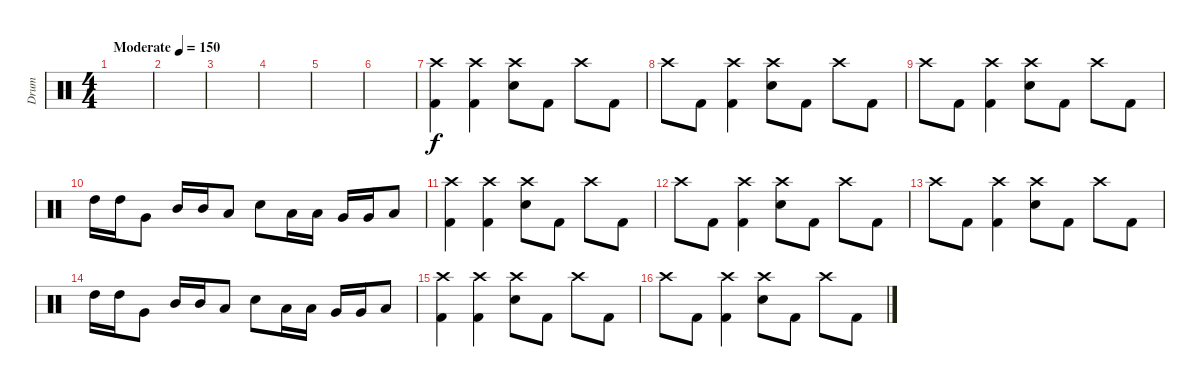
\track ("Drum" "Drum") {instrument percussion}
\staff {score}
\articulation defaults
\ts (4 4)
\tempo (150 "Moderate")
\clef neutral
\ks c
|
|
|
|
|
|
("Crash high (hit)" "Kick (hit) 2").4 ("Crash high (hit)" "Kick (hit) 2").4 ("Crash high (hit)" "Electric Snare (hit)").8 "Kick (hit) 2".8 "Crash high (hit)".8 "Kick (hit) 2".8 |
"Crash high (hit)".8 "Kick (hit) 2".8 ("Crash high (hit)" "Kick (hit) 2").4 ("Crash high (hit)" "Electric Snare (hit)").8 "Kick (hit) 2".8 "Crash high (hit)".8 "Kick (hit) 2".8 |
"Crash high (hit)".8 "Kick (hit) 2".8 ("Crash high (hit)" "Kick (hit) 2").4 ("Crash high (hit)" "Electric Snare (hit)").8 "Kick (hit) 2".8 "Crash high (hit)".8 "Kick (hit) 2".8 |
"High Tom (hit)".16 "High Tom (hit)".16 "Very Low Tom (hit)".8 "Mid Tom (hit)".16 "Mid Tom (hit)".16 "Low Tom (hit)".8 "Electric Snare (hit)".8 "Low Tom (hit)".16 "Low Tom (hit)".16 "Very Low Tom (hit)".16 "Very Low Tom (hit)".16 "Low Floor Tom (hit)".8 |
("Crash high (hit)" "Kick (hit) 2").4 ("Crash high (hit)" "Kick (hit) 2").4 ("Crash high (hit)" "Electric Snare (hit)").8 "Kick (hit) 2".8 "Crash high (hit)".8 "Kick (hit) 2".8 |
"Crash high (hit)".8 "Kick (hit) 2".8 ("Crash high (hit)" "Kick (hit) 2").4 ("Crash high (hit)" "Electric Snare (hit)").8 "Kick (hit) 2".8 "Crash high (hit)".8 "Kick (hit) 2".8 |
"Crash high (hit)".8 "Kick (hit) 2".8 ("Crash high (hit)" "Kick (hit) 2").4 ("Crash high (hit)" "Electric Snare (hit)").8 "Kick (hit) 2".8 "Crash high (hit)".8 "Kick (hit) 2".8 |
"High Tom (hit)".16 "High Tom (hit)".16 "Very Low Tom (hit)".8 "Mid Tom (hit)".16 "Mid Tom (hit)".16 "Low Tom (hit)".8 "Electric Snare (hit)".8 "Low Tom (hit)".16 "Low Tom (hit)".16 "Very Low Tom (hit)".16 "Very Low Tom (hit)".16 "Low Floor Tom (hit)".8 |
("Crash high (hit)" "Kick (hit) 2").4 ("Crash high (hit)" "Kick (hit) 2").4 ("Crash high (hit)" "Electric Snare (hit)").8 "Kick (hit) 2".8 "Crash high (hit)".8 "Kick (hit) 2".8 |
"Crash high (hit)".8 "Kick (hit) 2".8 ("Crash high (hit)" "Kick (hit) 2").4 ("Crash high (hit)" "Electric Snare (hit)").8 "Kick (hit) 2".8 "Crash high (hit)".8 "Kick (hit) 2".8
